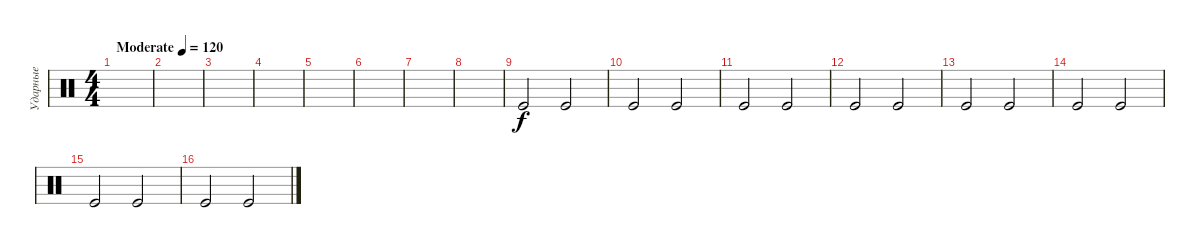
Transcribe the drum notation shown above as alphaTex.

\track ("Ударные" "Ударные") {instrument percussion}
\staff {score}
\articulation defaults
\ts (4 4)
\tempo (120 "Moderate")
\clef neutral
\ks c
|
|
|
|
|
|
|
|
"Kick (hit)".2 "Kick (hit)".2 |
"Kick (hit)".2 "Kick (hit)".2 |
"Kick (hit)".2 "Kick (hit)".2 |
"Kick (hit)".2 "Kick (hit)".2 |
"Kick (hit)".2 "Kick (hit)".2 |
"Kick (hit)".2 "Kick (hit)".2 |
"Kick (hit)".2 "Kick (hit)".2 |
"Kick (hit)".2 "Kick (hit)".2
